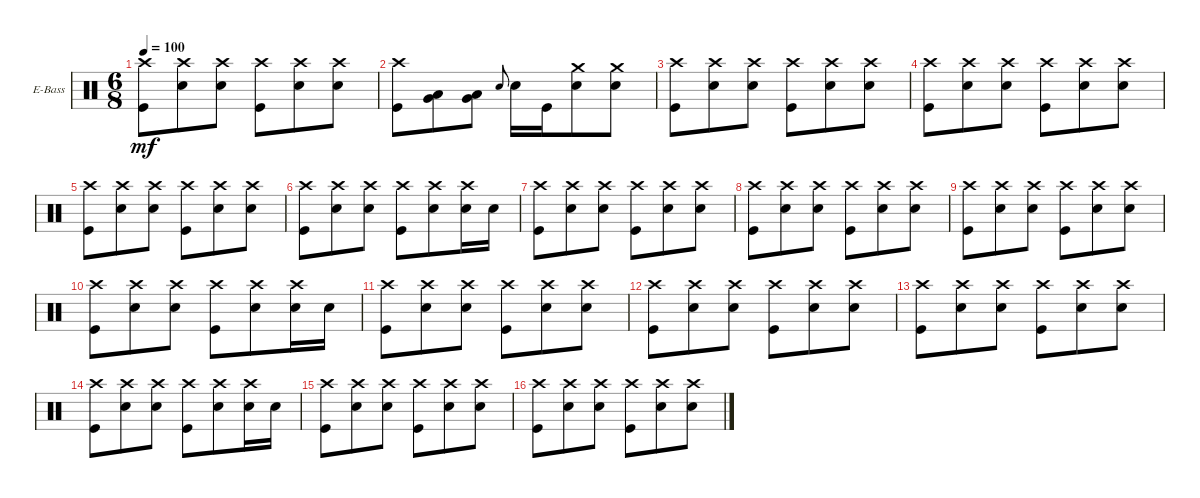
\defaultSystemsLayout 4
\bracketExtendMode groupsimilarinstruments
\firstSystemTrackNameOrientation horizontal
\otherSystemsTrackNameOrientation horizontal
\track ("Drums" "E-Bass") {instrument percussion}
\staff {score}
\articulation defaults
\ts (6 8)
\tempo 100
\clef neutral
\ks c
("Crash high (hit)" "Kick (hit)").8{dy mf} ("Crash high (hit)" "Snare (hit) 2").8 ("Crash high (hit)" "Snare (hit) 2").8 ("Crash high (hit)" "Kick (hit)").8 ("Snare (hit) 2" "Crash high (hit)").8 ("Snare (hit) 2" "Crash high (hit)").8 |
("Crash high (hit)" "Kick (hit)").8 ("Very Low Tom (hit)" "Low Tom (hit)").8 ("Low Tom (hit)" "Very Low Tom (hit)").8 "Snare (hit) 2".8{gr onbeat} "Snare (hit) 2".16 "Kick (hit)".16 ("Snare (hit) 2" "Crash medium (hit)").8 ("Snare (hit) 2" "Crash medium (hit)").8 |
("Crash high (hit)" "Kick (hit)").8 ("Crash high (hit)" "Snare (hit) 2").8 ("Crash high (hit)" "Snare (hit) 2").8 ("Crash high (hit)" "Kick (hit)").8 ("Snare (hit) 2" "Crash high (hit)").8 ("Snare (hit) 2" "Crash high (hit)").8 |
("Crash high (hit)" "Kick (hit)").8 ("Crash high (hit)" "Snare (hit) 2").8 ("Crash high (hit)" "Snare (hit) 2").8 ("Crash high (hit)" "Kick (hit)").8 ("Snare (hit) 2" "Crash high (hit)").8 ("Snare (hit) 2" "Crash high (hit)").8 |
("Crash high (hit)" "Kick (hit)").8 ("Crash high (hit)" "Snare (hit) 2").8 ("Crash high (hit)" "Snare (hit) 2").8 ("Crash high (hit)" "Kick (hit)").8 ("Snare (hit) 2" "Crash high (hit)").8 ("Snare (hit) 2" "Crash high (hit)").8 |
("Crash high (hit)" "Kick (hit)").8 ("Crash high (hit)" "Snare (hit) 2").8 ("Crash high (hit)" "Snare (hit) 2").8 ("Crash high (hit)" "Kick (hit)").8 ("Snare (hit) 2" "Crash high (hit)").8 ("Snare (hit) 2" "Crash high (hit)").16 "Snare (hit) 2".16 |
("Crash high (hit)" "Kick (hit)").8 ("Crash high (hit)" "Snare (hit) 2").8 ("Crash high (hit)" "Snare (hit) 2").8 ("Crash high (hit)" "Kick (hit)").8 ("Snare (hit) 2" "Crash high (hit)").8 ("Snare (hit) 2" "Crash high (hit)").8 |
("Crash high (hit)" "Kick (hit)").8 ("Crash high (hit)" "Snare (hit) 2").8 ("Crash high (hit)" "Snare (hit) 2").8 ("Crash high (hit)" "Kick (hit)").8 ("Snare (hit) 2" "Crash high (hit)").8 ("Snare (hit) 2" "Crash high (hit)").8 |
("Crash high (hit)" "Kick (hit)").8 ("Crash high (hit)" "Snare (hit) 2").8 ("Crash high (hit)" "Snare (hit) 2").8 ("Crash high (hit)" "Kick (hit)").8 ("Snare (hit) 2" "Crash high (hit)").8 ("Snare (hit) 2" "Crash high (hit)").8 |
("Crash high (hit)" "Kick (hit)").8 ("Crash high (hit)" "Snare (hit) 2").8 ("Crash high (hit)" "Snare (hit) 2").8 ("Crash high (hit)" "Kick (hit)").8 ("Snare (hit) 2" "Crash high (hit)").8 ("Snare (hit) 2" "Crash high (hit)").16 "Snare (hit) 2".16 |
("Crash high (hit)" "Kick (hit)").8 ("Crash high (hit)" "Snare (hit) 2").8 ("Crash high (hit)" "Snare (hit) 2").8 ("Crash high (hit)" "Kick (hit)").8 ("Snare (hit) 2" "Crash high (hit)").8 ("Snare (hit) 2" "Crash high (hit)").8 |
("Crash high (hit)" "Kick (hit)").8 ("Crash high (hit)" "Snare (hit) 2").8 ("Crash high (hit)" "Snare (hit) 2").8 ("Crash high (hit)" "Kick (hit)").8 ("Snare (hit) 2" "Crash high (hit)").8 ("Snare (hit) 2" "Crash high (hit)").8 |
("Crash high (hit)" "Kick (hit)").8 ("Crash high (hit)" "Snare (hit) 2").8 ("Crash high (hit)" "Snare (hit) 2").8 ("Crash high (hit)" "Kick (hit)").8 ("Snare (hit) 2" "Crash high (hit)").8 ("Snare (hit) 2" "Crash high (hit)").8 |
("Crash high (hit)" "Kick (hit)").8 ("Crash high (hit)" "Snare (hit) 2").8 ("Crash high (hit)" "Snare (hit) 2").8 ("Crash high (hit)" "Kick (hit)").8 ("Snare (hit) 2" "Crash high (hit)").8 ("Snare (hit) 2" "Crash high (hit)").16 "Snare (hit) 2".16 |
("Crash high (hit)" "Kick (hit)").8 ("Crash high (hit)" "Snare (hit) 2").8 ("Crash high (hit)" "Snare (hit) 2").8 ("Crash high (hit)" "Kick (hit)").8 ("Snare (hit) 2" "Crash high (hit)").8 ("Snare (hit) 2" "Crash high (hit)").8 |
("Crash high (hit)" "Kick (hit)").8 ("Crash high (hit)" "Snare (hit) 2").8 ("Crash high (hit)" "Snare (hit) 2").8 ("Crash high (hit)" "Kick (hit)").8 ("Snare (hit) 2" "Crash high (hit)").8 ("Snare (hit) 2" "Crash high (hit)").8
